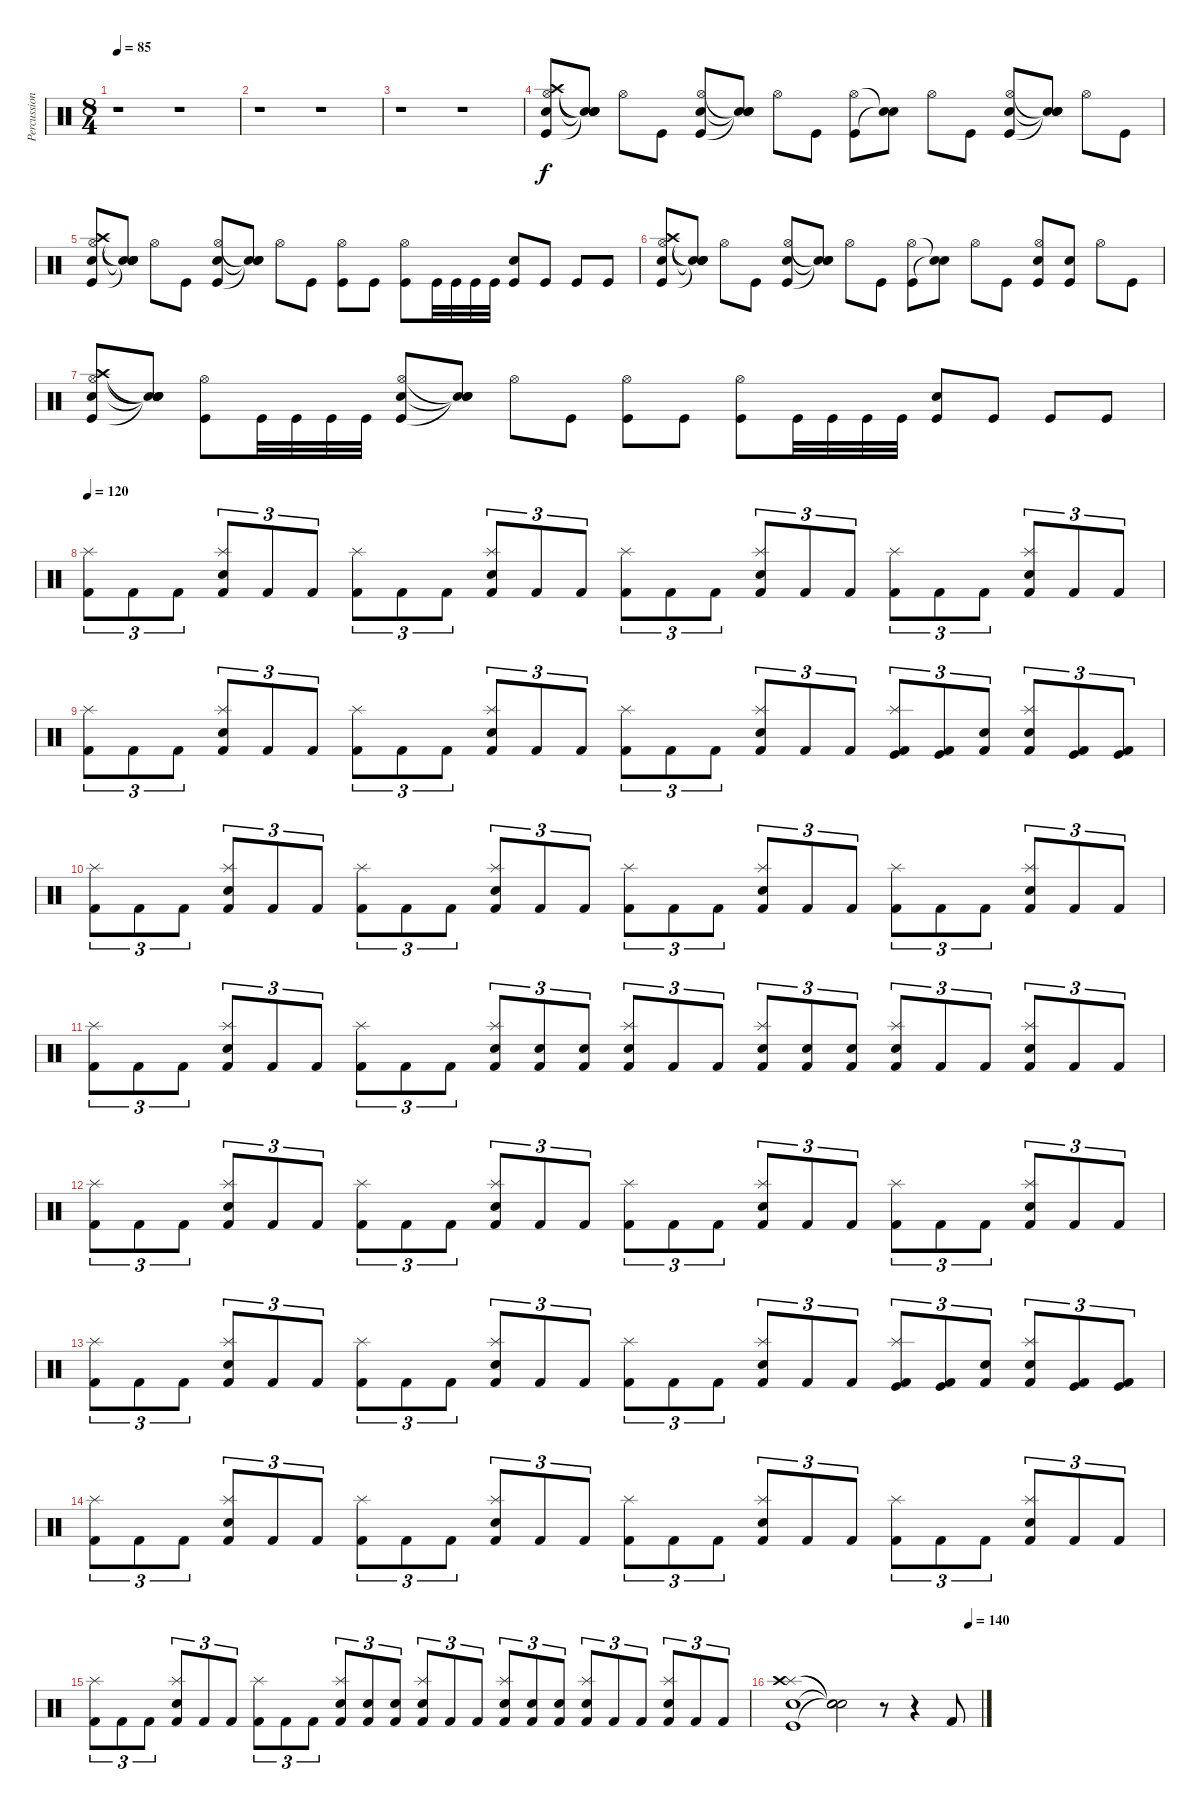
\track ("Percussion" "Percussion") {instrument percussion}
\staff {score}
\articulation defaults
\ts (8 4)
\tempo 85
\clef neutral
\ks c
r.1{dy f} r.1 |
r.1 r.1 |
r.1 r.1 |
("Snare (hit) 2" "Crash high (hit)" "Hi-Hat (open)" "Kick (hit)").8 ("Snare (hit)"{t} "Snare (hit)"{t} "Snare (hit)"{t} "Snare (hit)"{t}).8 "Hi-Hat (open)".8 "Kick (hit)".8 ("Snare (hit) 2" "Hi-Hat (open)" "Kick (hit)").8 ("Snare (hit)"{t} "Snare (hit)"{t} "Snare (hit)"{t}).8 "Hi-Hat (open)".8 "Kick (hit)".8 ("Hi-Hat (open)" "Kick (hit)").8 ("Snare (hit)"{t} "Snare (hit)"{t}).8 "Hi-Hat (open)".8 "Kick (hit)".8 ("Snare (hit) 2" "Hi-Hat (open)" "Kick (hit)").8 ("Snare (hit)"{t} "Snare (hit)"{t} "Snare (hit)"{t}).8 "Hi-Hat (open)".8 "Kick (hit)".8 |
("Snare (hit) 2" "Crash high (hit)" "Hi-Hat (open)" "Kick (hit)").8 ("Snare (hit)"{t} "Snare (hit)"{t} "Snare (hit)"{t} "Snare (hit)"{t}).8 "Hi-Hat (open)".8 "Kick (hit)".8 ("Snare (hit) 2" "Hi-Hat (open)" "Kick (hit)").8 ("Snare (hit)"{t} "Snare (hit)"{t} "Snare (hit)"{t}).8 "Hi-Hat (open)".8 "Kick (hit)".8 ("Hi-Hat (open)" "Kick (hit)").8 "Kick (hit)".8 ("Kick (hit)" "Hi-Hat (open)").8 "Kick (hit)".32 "Kick (hit)".32 "Kick (hit)".32 "Kick (hit)".32 ("Snare (hit) 2" "Kick (hit)").8 "Kick (hit)".8 "Kick (hit)".8 "Kick (hit)".8 |
("Snare (hit) 2" "Crash high (hit)" "Hi-Hat (open)" "Kick (hit)").8 ("Snare (hit)"{t} "Snare (hit)"{t} "Snare (hit)"{t} "Snare (hit)"{t}).8 "Hi-Hat (open)".8 "Kick (hit)".8 ("Snare (hit) 2" "Hi-Hat (open)" "Kick (hit)").8 ("Snare (hit)"{t} "Snare (hit)"{t} "Snare (hit)"{t}).8 "Hi-Hat (open)".8 "Kick (hit)".8 ("Hi-Hat (open)" "Kick (hit)").8 ("Snare (hit)"{t} "Snare (hit)"{t}).8 "Hi-Hat (open)".8 "Kick (hit)".8 ("Snare (hit) 2" "Hi-Hat (open)" "Kick (hit)").8 ("Kick (hit)" "Snare (hit) 2").8 "Hi-Hat (open)".8 "Kick (hit)".8 |
("Snare (hit) 2" "Crash high (hit)" "Hi-Hat (open)" "Kick (hit)").8 ("Snare (hit)"{t} "Snare (hit)"{t} "Snare (hit)"{t} "Snare (hit)"{t}).8 ("Hi-Hat (open)" "Kick (hit)").8 "Kick (hit)".32 "Kick (hit)".32 "Kick (hit)".32 "Kick (hit)".32 ("Snare (hit) 2" "Hi-Hat (open)" "Kick (hit)").8 ("Snare (hit)"{t} "Snare (hit)"{t} "Snare (hit)"{t}).8 "Hi-Hat (open)".8 "Kick (hit)".8 ("Hi-Hat (open)" "Kick (hit)").8 "Kick (hit)".8 ("Kick (hit)" "Hi-Hat (open)").8 "Kick (hit)".32 "Kick (hit)".32 "Kick (hit)".32 "Kick (hit)".32 ("Snare (hit) 2" "Kick (hit)").8 "Kick (hit)".8 "Kick (hit)".8 "Kick (hit)".8 |
\tempo 120
("Splash (hit)" "Kick (hit) 2").8{tu (3 2)} "Kick (hit) 2".8{tu (3 2)} "Kick (hit) 2".8{tu (3 2)} ("Splash (hit)" "Snare (hit) 2" "Kick (hit) 2").8{tu (3 2)} "Kick (hit) 2".8{tu (3 2)} "Kick (hit) 2".8{tu (3 2)} ("Splash (hit)" "Kick (hit) 2").8{tu (3 2)} "Kick (hit) 2".8{tu (3 2)} "Kick (hit) 2".8{tu (3 2)} ("Splash (hit)" "Snare (hit) 2" "Kick (hit) 2").8{tu (3 2)} "Kick (hit) 2".8{tu (3 2)} "Kick (hit) 2".8{tu (3 2)} ("Splash (hit)" "Kick (hit) 2").8{tu (3 2)} "Kick (hit) 2".8{tu (3 2)} "Kick (hit) 2".8{tu (3 2)} ("Splash (hit)" "Snare (hit) 2" "Kick (hit) 2").8{tu (3 2)} "Kick (hit) 2".8{tu (3 2)} "Kick (hit) 2".8{tu (3 2)} ("Splash (hit)" "Kick (hit) 2").8{tu (3 2)} "Kick (hit) 2".8{tu (3 2)} "Kick (hit) 2".8{tu (3 2)} ("Splash (hit)" "Snare (hit) 2" "Kick (hit) 2").8{tu (3 2)} "Kick (hit) 2".8{tu (3 2)} "Kick (hit) 2".8{tu (3 2)} |
("Splash (hit)" "Kick (hit) 2").8{tu (3 2)} "Kick (hit) 2".8{tu (3 2)} "Kick (hit) 2".8{tu (3 2)} ("Splash (hit)" "Snare (hit) 2" "Kick (hit) 2").8{tu (3 2)} "Kick (hit) 2".8{tu (3 2)} "Kick (hit) 2".8{tu (3 2)} ("Splash (hit)" "Kick (hit) 2").8{tu (3 2)} "Kick (hit) 2".8{tu (3 2)} "Kick (hit) 2".8{tu (3 2)} ("Splash (hit)" "Snare (hit) 2" "Kick (hit) 2").8{tu (3 2)} "Kick (hit) 2".8{tu (3 2)} "Kick (hit) 2".8{tu (3 2)} ("Splash (hit)" "Kick (hit) 2").8{tu (3 2)} "Kick (hit) 2".8{tu (3 2)} "Kick (hit) 2".8{tu (3 2)} ("Splash (hit)" "Snare (hit) 2" "Kick (hit) 2").8{tu (3 2)} "Kick (hit) 2".8{tu (3 2)} "Kick (hit) 2".8{tu (3 2)} ("Splash (hit)" "Kick (hit)" "Kick (hit) 2").8{tu (3 2)} ("Kick (hit)" "Kick (hit) 2").8{tu (3 2)} ("Snare (hit) 2" "Kick (hit) 2").8{tu (3 2)} ("Splash (hit)" "Snare (hit) 2" "Kick (hit) 2").8{tu (3 2)} ("Kick (hit)" "Kick (hit) 2").8{tu (3 2)} ("Kick (hit)" "Kick (hit) 2").8{tu (3 2)} |
("Splash (hit)" "Kick (hit) 2").8{tu (3 2)} "Kick (hit) 2".8{tu (3 2)} "Kick (hit) 2".8{tu (3 2)} ("Splash (hit)" "Snare (hit) 2" "Kick (hit) 2").8{tu (3 2)} "Kick (hit) 2".8{tu (3 2)} "Kick (hit) 2".8{tu (3 2)} ("Splash (hit)" "Kick (hit) 2").8{tu (3 2)} "Kick (hit) 2".8{tu (3 2)} "Kick (hit) 2".8{tu (3 2)} ("Splash (hit)" "Snare (hit) 2" "Kick (hit) 2").8{tu (3 2)} "Kick (hit) 2".8{tu (3 2)} "Kick (hit) 2".8{tu (3 2)} ("Splash (hit)" "Kick (hit) 2").8{tu (3 2)} "Kick (hit) 2".8{tu (3 2)} "Kick (hit) 2".8{tu (3 2)} ("Splash (hit)" "Snare (hit) 2" "Kick (hit) 2").8{tu (3 2)} "Kick (hit) 2".8{tu (3 2)} "Kick (hit) 2".8{tu (3 2)} ("Splash (hit)" "Kick (hit) 2").8{tu (3 2)} "Kick (hit) 2".8{tu (3 2)} "Kick (hit) 2".8{tu (3 2)} ("Splash (hit)" "Snare (hit) 2" "Kick (hit) 2").8{tu (3 2)} "Kick (hit) 2".8{tu (3 2)} "Kick (hit) 2".8{tu (3 2)} |
("Splash (hit)" "Kick (hit) 2").8{tu (3 2)} "Kick (hit) 2".8{tu (3 2)} "Kick (hit) 2".8{tu (3 2)} ("Splash (hit)" "Snare (hit) 2" "Kick (hit) 2").8{tu (3 2)} "Kick (hit) 2".8{tu (3 2)} "Kick (hit) 2".8{tu (3 2)} ("Splash (hit)" "Kick (hit) 2").8{tu (3 2)} "Kick (hit) 2".8{tu (3 2)} "Kick (hit) 2".8{tu (3 2)} ("Splash (hit)" "Snare (hit) 2" "Kick (hit) 2").8{tu (3 2)} ("Snare (hit) 2" "Kick (hit) 2").8{tu (3 2)} ("Snare (hit) 2" "Kick (hit) 2").8{tu (3 2)} ("Splash (hit)" "Snare (hit) 2" "Kick (hit) 2").8{tu (3 2)} "Kick (hit) 2".8{tu (3 2)} "Kick (hit) 2".8{tu (3 2)} ("Splash (hit)" "Snare (hit) 2" "Kick (hit) 2").8{tu (3 2)} ("Snare (hit) 2" "Kick (hit) 2").8{tu (3 2)} ("Snare (hit) 2" "Kick (hit) 2").8{tu (3 2)} ("Splash (hit)" "Snare (hit) 2" "Kick (hit) 2").8{tu (3 2)} "Kick (hit) 2".8{tu (3 2)} "Kick (hit) 2".8{tu (3 2)} ("Splash (hit)" "Snare (hit) 2" "Kick (hit) 2").8{tu (3 2)} "Kick (hit) 2".8{tu (3 2)} "Kick (hit) 2".8{tu (3 2)} |
("Splash (hit)" "Kick (hit) 2").8{tu (3 2)} "Kick (hit) 2".8{tu (3 2)} "Kick (hit) 2".8{tu (3 2)} ("Splash (hit)" "Snare (hit) 2" "Kick (hit) 2").8{tu (3 2)} "Kick (hit) 2".8{tu (3 2)} "Kick (hit) 2".8{tu (3 2)} ("Splash (hit)" "Kick (hit) 2").8{tu (3 2)} "Kick (hit) 2".8{tu (3 2)} "Kick (hit) 2".8{tu (3 2)} ("Splash (hit)" "Snare (hit) 2" "Kick (hit) 2").8{tu (3 2)} "Kick (hit) 2".8{tu (3 2)} "Kick (hit) 2".8{tu (3 2)} ("Splash (hit)" "Kick (hit) 2").8{tu (3 2)} "Kick (hit) 2".8{tu (3 2)} "Kick (hit) 2".8{tu (3 2)} ("Splash (hit)" "Snare (hit) 2" "Kick (hit) 2").8{tu (3 2)} "Kick (hit) 2".8{tu (3 2)} "Kick (hit) 2".8{tu (3 2)} ("Splash (hit)" "Kick (hit) 2").8{tu (3 2)} "Kick (hit) 2".8{tu (3 2)} "Kick (hit) 2".8{tu (3 2)} ("Splash (hit)" "Snare (hit) 2" "Kick (hit) 2").8{tu (3 2)} "Kick (hit) 2".8{tu (3 2)} "Kick (hit) 2".8{tu (3 2)} |
("Splash (hit)" "Kick (hit) 2").8{tu (3 2)} "Kick (hit) 2".8{tu (3 2)} "Kick (hit) 2".8{tu (3 2)} ("Splash (hit)" "Snare (hit) 2" "Kick (hit) 2").8{tu (3 2)} "Kick (hit) 2".8{tu (3 2)} "Kick (hit) 2".8{tu (3 2)} ("Splash (hit)" "Kick (hit) 2").8{tu (3 2)} "Kick (hit) 2".8{tu (3 2)} "Kick (hit) 2".8{tu (3 2)} ("Splash (hit)" "Snare (hit) 2" "Kick (hit) 2").8{tu (3 2)} "Kick (hit) 2".8{tu (3 2)} "Kick (hit) 2".8{tu (3 2)} ("Splash (hit)" "Kick (hit) 2").8{tu (3 2)} "Kick (hit) 2".8{tu (3 2)} "Kick (hit) 2".8{tu (3 2)} ("Splash (hit)" "Snare (hit) 2" "Kick (hit) 2").8{tu (3 2)} "Kick (hit) 2".8{tu (3 2)} "Kick (hit) 2".8{tu (3 2)} ("Splash (hit)" "Kick (hit)" "Kick (hit) 2").8{tu (3 2)} ("Kick (hit)" "Kick (hit) 2").8{tu (3 2)} ("Snare (hit) 2" "Kick (hit) 2").8{tu (3 2)} ("Splash (hit)" "Snare (hit) 2" "Kick (hit) 2").8{tu (3 2)} ("Kick (hit)" "Kick (hit) 2").8{tu (3 2)} ("Kick (hit)" "Kick (hit) 2").8{tu (3 2)} |
("Splash (hit)" "Kick (hit) 2").8{tu (3 2)} "Kick (hit) 2".8{tu (3 2)} "Kick (hit) 2".8{tu (3 2)} ("Splash (hit)" "Snare (hit) 2" "Kick (hit) 2").8{tu (3 2)} "Kick (hit) 2".8{tu (3 2)} "Kick (hit) 2".8{tu (3 2)} ("Splash (hit)" "Kick (hit) 2").8{tu (3 2)} "Kick (hit) 2".8{tu (3 2)} "Kick (hit) 2".8{tu (3 2)} ("Splash (hit)" "Snare (hit) 2" "Kick (hit) 2").8{tu (3 2)} "Kick (hit) 2".8{tu (3 2)} "Kick (hit) 2".8{tu (3 2)} ("Splash (hit)" "Kick (hit) 2").8{tu (3 2)} "Kick (hit) 2".8{tu (3 2)} "Kick (hit) 2".8{tu (3 2)} ("Splash (hit)" "Snare (hit) 2" "Kick (hit) 2").8{tu (3 2)} "Kick (hit) 2".8{tu (3 2)} "Kick (hit) 2".8{tu (3 2)} ("Splash (hit)" "Kick (hit) 2").8{tu (3 2)} "Kick (hit) 2".8{tu (3 2)} "Kick (hit) 2".8{tu (3 2)} ("Splash (hit)" "Snare (hit) 2" "Kick (hit) 2").8{tu (3 2)} "Kick (hit) 2".8{tu (3 2)} "Kick (hit) 2".8{tu (3 2)} |
("Splash (hit)" "Kick (hit) 2").8{tu (3 2)} "Kick (hit) 2".8{tu (3 2)} "Kick (hit) 2".8{tu (3 2)} ("Splash (hit)" "Snare (hit) 2" "Kick (hit) 2").8{tu (3 2)} "Kick (hit) 2".8{tu (3 2)} "Kick (hit) 2".8{tu (3 2)} ("Splash (hit)" "Kick (hit) 2").8{tu (3 2)} "Kick (hit) 2".8{tu (3 2)} "Kick (hit) 2".8{tu (3 2)} ("Splash (hit)" "Snare (hit) 2" "Kick (hit) 2").8{tu (3 2)} ("Snare (hit) 2" "Kick (hit) 2").8{tu (3 2)} ("Snare (hit) 2" "Kick (hit) 2").8{tu (3 2)} ("Splash (hit)" "Snare (hit) 2" "Kick (hit) 2").8{tu (3 2)} "Kick (hit) 2".8{tu (3 2)} "Kick (hit) 2".8{tu (3 2)} ("Splash (hit)" "Snare (hit) 2" "Kick (hit) 2").8{tu (3 2)} ("Snare (hit) 2" "Kick (hit) 2").8{tu (3 2)} ("Snare (hit) 2" "Kick (hit) 2").8{tu (3 2)} ("Splash (hit)" "Snare (hit) 2" "Kick (hit) 2").8{tu (3 2)} "Kick (hit) 2".8{tu (3 2)} "Kick (hit) 2".8{tu (3 2)} ("Splash (hit)" "Snare (hit) 2" "Kick (hit) 2").8{tu (3 2)} "Kick (hit) 2".8{tu (3 2)} "Kick (hit) 2".8{tu (3 2)} |
\tempo (140 0.9375)
("Splash (hit)" "Crash high (hit)" "Snare (hit) 2" "Kick (hit)").1 ("Snare (hit)"{t} "Snare (hit)"{t} "Snare (hit)"{t} "Snare (hit)"{t}).2 r.8 r.4 "Kick (hit) 2".8
